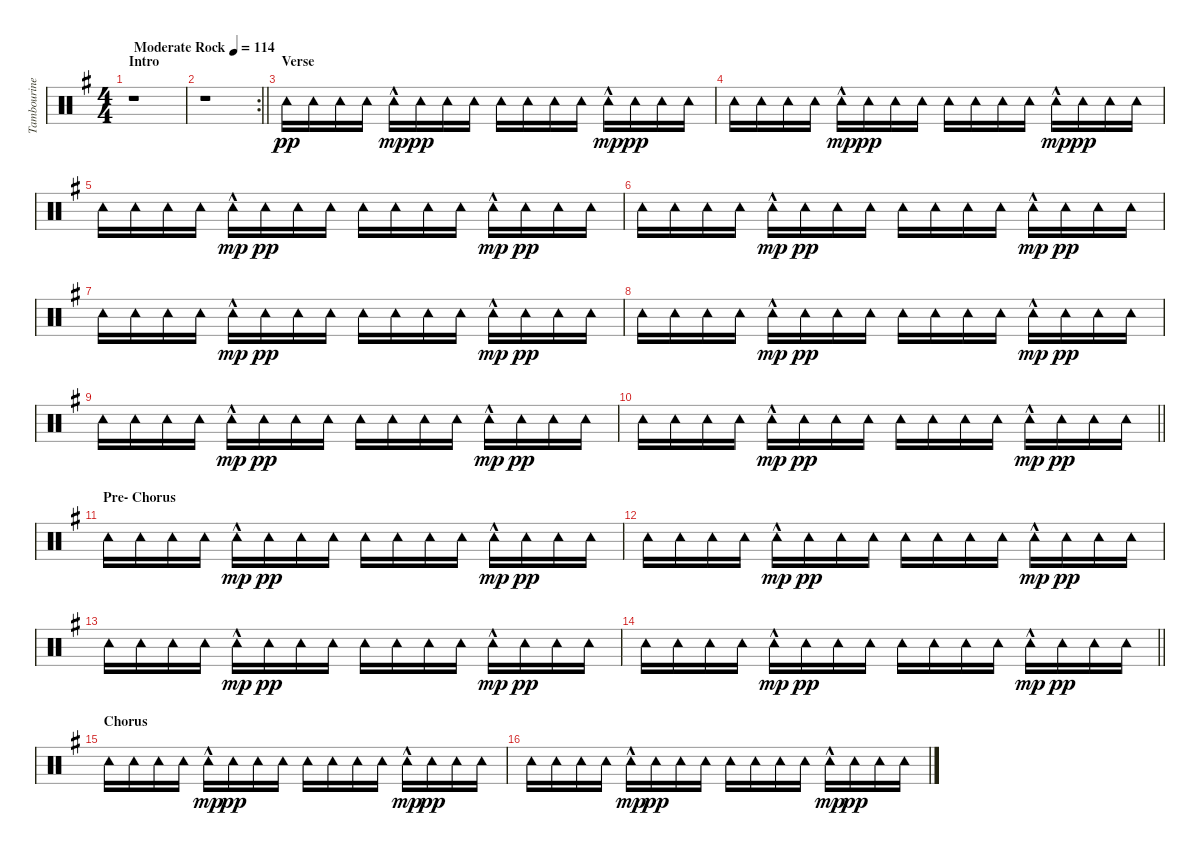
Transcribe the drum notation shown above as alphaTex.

\track ("Tambourine" "Tambourine") {instrument percussion}
\staff {score}
\articulation defaults
\ts (4 4)
\section ("" "Intro")
\tempo (114 "Moderate Rock")
\clef neutral
\ks g
r.1{dy pp} |
\rc 2
\barLineRight lightlight
r.1 |
\section ("" "Verse")
"Tambourine (hit)".16 "Tambourine (hit)".16 "Tambourine (hit)".16 "Tambourine (hit)".16 "Tambourine (hit)"{hac}.16{dy mp} "Tambourine (hit)".16{dy pp} "Tambourine (hit)".16 "Tambourine (hit)".16 "Tambourine (hit)".16 "Tambourine (hit)".16 "Tambourine (hit)".16 "Tambourine (hit)".16 "Tambourine (hit)"{hac}.16{dy mp} "Tambourine (hit)".16{dy pp} "Tambourine (hit)".16 "Tambourine (hit)".16 |
"Tambourine (hit)".16 "Tambourine (hit)".16 "Tambourine (hit)".16 "Tambourine (hit)".16 "Tambourine (hit)"{hac}.16{dy mp} "Tambourine (hit)".16{dy pp} "Tambourine (hit)".16 "Tambourine (hit)".16 "Tambourine (hit)".16 "Tambourine (hit)".16 "Tambourine (hit)".16 "Tambourine (hit)".16 "Tambourine (hit)"{hac}.16{dy mp} "Tambourine (hit)".16{dy pp} "Tambourine (hit)".16 "Tambourine (hit)".16 |
"Tambourine (hit)".16 "Tambourine (hit)".16 "Tambourine (hit)".16 "Tambourine (hit)".16 "Tambourine (hit)"{hac}.16{dy mp} "Tambourine (hit)".16{dy pp} "Tambourine (hit)".16 "Tambourine (hit)".16 "Tambourine (hit)".16 "Tambourine (hit)".16 "Tambourine (hit)".16 "Tambourine (hit)".16 "Tambourine (hit)"{hac}.16{dy mp} "Tambourine (hit)".16{dy pp} "Tambourine (hit)".16 "Tambourine (hit)".16 |
"Tambourine (hit)".16 "Tambourine (hit)".16 "Tambourine (hit)".16 "Tambourine (hit)".16 "Tambourine (hit)"{hac}.16{dy mp} "Tambourine (hit)".16{dy pp} "Tambourine (hit)".16 "Tambourine (hit)".16 "Tambourine (hit)".16 "Tambourine (hit)".16 "Tambourine (hit)".16 "Tambourine (hit)".16 "Tambourine (hit)"{hac}.16{dy mp} "Tambourine (hit)".16{dy pp} "Tambourine (hit)".16 "Tambourine (hit)".16 |
"Tambourine (hit)".16 "Tambourine (hit)".16 "Tambourine (hit)".16 "Tambourine (hit)".16 "Tambourine (hit)"{hac}.16{dy mp} "Tambourine (hit)".16{dy pp} "Tambourine (hit)".16 "Tambourine (hit)".16 "Tambourine (hit)".16 "Tambourine (hit)".16 "Tambourine (hit)".16 "Tambourine (hit)".16 "Tambourine (hit)"{hac}.16{dy mp} "Tambourine (hit)".16{dy pp} "Tambourine (hit)".16 "Tambourine (hit)".16 |
"Tambourine (hit)".16 "Tambourine (hit)".16 "Tambourine (hit)".16 "Tambourine (hit)".16 "Tambourine (hit)"{hac}.16{dy mp} "Tambourine (hit)".16{dy pp} "Tambourine (hit)".16 "Tambourine (hit)".16 "Tambourine (hit)".16 "Tambourine (hit)".16 "Tambourine (hit)".16 "Tambourine (hit)".16 "Tambourine (hit)"{hac}.16{dy mp} "Tambourine (hit)".16{dy pp} "Tambourine (hit)".16 "Tambourine (hit)".16 |
"Tambourine (hit)".16 "Tambourine (hit)".16 "Tambourine (hit)".16 "Tambourine (hit)".16 "Tambourine (hit)"{hac}.16{dy mp} "Tambourine (hit)".16{dy pp} "Tambourine (hit)".16 "Tambourine (hit)".16 "Tambourine (hit)".16 "Tambourine (hit)".16 "Tambourine (hit)".16 "Tambourine (hit)".16 "Tambourine (hit)"{hac}.16{dy mp} "Tambourine (hit)".16{dy pp} "Tambourine (hit)".16 "Tambourine (hit)".16 |
\barLineRight lightlight "Tambourine (hit)".16 "Tambourine (hit)".16 "Tambourine (hit)".16 "Tambourine (hit)".16 "Tambourine (hit)"{hac}.16{dy mp} "Tambourine (hit)".16{dy pp} "Tambourine (hit)".16 "Tambourine (hit)".16 "Tambourine (hit)".16 "Tambourine (hit)".16 "Tambourine (hit)".16 "Tambourine (hit)".16 "Tambourine (hit)"{hac}.16{dy mp} "Tambourine (hit)".16{dy pp} "Tambourine (hit)".16 "Tambourine (hit)".16
|
\section ("" "Pre- Chorus")
"Tambourine (hit)".16 "Tambourine (hit)".16 "Tambourine (hit)".16 "Tambourine (hit)".16 "Tambourine (hit)"{hac}.16{dy mp} "Tambourine (hit)".16{dy pp} "Tambourine (hit)".16 "Tambourine (hit)".16 "Tambourine (hit)".16 "Tambourine (hit)".16 "Tambourine (hit)".16 "Tambourine (hit)".16 "Tambourine (hit)"{hac}.16{dy mp} "Tambourine (hit)".16{dy pp} "Tambourine (hit)".16 "Tambourine (hit)".16 |
"Tambourine (hit)".16 "Tambourine (hit)".16 "Tambourine (hit)".16 "Tambourine (hit)".16 "Tambourine (hit)"{hac}.16{dy mp} "Tambourine (hit)".16{dy pp} "Tambourine (hit)".16 "Tambourine (hit)".16 "Tambourine (hit)".16 "Tambourine (hit)".16 "Tambourine (hit)".16 "Tambourine (hit)".16 "Tambourine (hit)"{hac}.16{dy mp} "Tambourine (hit)".16{dy pp} "Tambourine (hit)".16 "Tambourine (hit)".16 |
"Tambourine (hit)".16 "Tambourine (hit)".16 "Tambourine (hit)".16 "Tambourine (hit)".16 "Tambourine (hit)"{hac}.16{dy mp} "Tambourine (hit)".16{dy pp} "Tambourine (hit)".16 "Tambourine (hit)".16 "Tambourine (hit)".16 "Tambourine (hit)".16 "Tambourine (hit)".16 "Tambourine (hit)".16 "Tambourine (hit)"{hac}.16{dy mp} "Tambourine (hit)".16{dy pp} "Tambourine (hit)".16 "Tambourine (hit)".16 |
\barLineRight lightlight "Tambourine (hit)".16 "Tambourine (hit)".16 "Tambourine (hit)".16 "Tambourine (hit)".16 "Tambourine (hit)"{hac}.16{dy mp} "Tambourine (hit)".16{dy pp} "Tambourine (hit)".16 "Tambourine (hit)".16 "Tambourine (hit)".16 "Tambourine (hit)".16 "Tambourine (hit)".16 "Tambourine (hit)".16 "Tambourine (hit)"{hac}.16{dy mp} "Tambourine (hit)".16{dy pp} "Tambourine (hit)".16 "Tambourine (hit)".16
|
\section ("" "Chorus")
"Tambourine (hit)".16 "Tambourine (hit)".16 "Tambourine (hit)".16 "Tambourine (hit)".16 "Tambourine (hit)"{hac}.16{dy mp} "Tambourine (hit)".16{dy pp} "Tambourine (hit)".16 "Tambourine (hit)".16 "Tambourine (hit)".16 "Tambourine (hit)".16 "Tambourine (hit)".16 "Tambourine (hit)".16 "Tambourine (hit)"{hac}.16{dy mp} "Tambourine (hit)".16{dy pp} "Tambourine (hit)".16 "Tambourine (hit)".16 |
"Tambourine (hit)".16 "Tambourine (hit)".16 "Tambourine (hit)".16 "Tambourine (hit)".16 "Tambourine (hit)"{hac}.16{dy mp} "Tambourine (hit)".16{dy pp} "Tambourine (hit)".16 "Tambourine (hit)".16 "Tambourine (hit)".16 "Tambourine (hit)".16 "Tambourine (hit)".16 "Tambourine (hit)".16 "Tambourine (hit)"{hac}.16{dy mp} "Tambourine (hit)".16{dy pp} "Tambourine (hit)".16 "Tambourine (hit)".16
